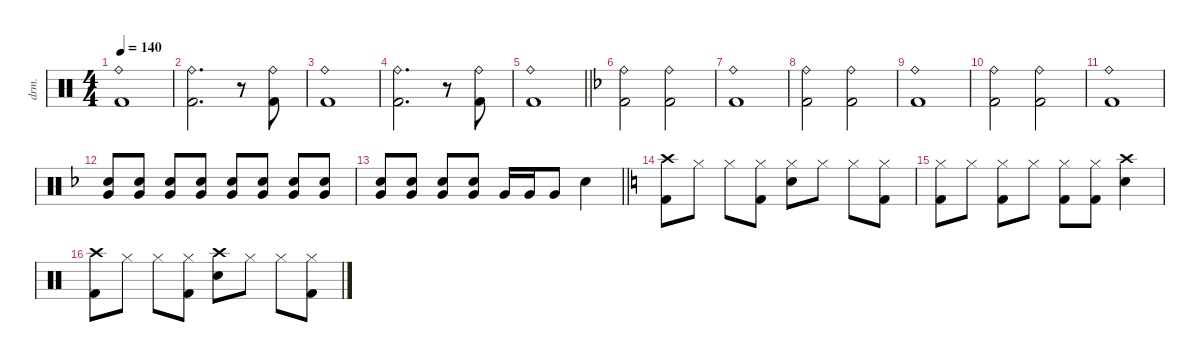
\defaultSystemsLayout 4
\hideDynamics
\bracketExtendMode nobrackets
\otherSystemsTrackNameOrientation horizontal
\track ("Drums" "drm.") {defaultSystemsLayout 4 instrument percussion}
\staff {score}
\articulation defaults
\ts (4 4)
\tempo 140
\clef neutral
\ks aminor
("Ride (bell)" "Kick (hit) 2").1{dy p beam Down} |
("Ride (bell)" "Kick (hit) 2").2{d beam Down} r.8{beam Down} ("Ride (bell)" "Kick (hit) 2").8{beam Down} |
("Ride (bell)" "Kick (hit) 2").1{beam Down} |
("Ride (bell)" "Kick (hit) 2").2{d beam Down} r.8{beam Down} ("Ride (bell)" "Kick (hit) 2").8{beam Down} |
\barLineRight lightlight
("Ride (bell)" "Kick (hit) 2").1{beam Down} |
\ks dminor
("Ride (bell)"{acc forcenatural} "Kick (hit) 2"{acc forcenatural}).2{beam Down} ("Ride (bell)"{acc forcenatural} "Kick (hit) 2"{acc forcenatural}).2{beam Down} |
("Ride (bell)"{acc forcenatural} "Kick (hit) 2"{acc forcenatural}).1{beam Down} |
("Ride (bell)"{acc forcenatural} "Kick (hit) 2"{acc forcenatural}).2{beam Down} ("Ride (bell)"{acc forcenatural} "Kick (hit) 2"{acc forcenatural}).2{beam Down} |
("Ride (bell)"{acc forcenatural} "Kick (hit) 2"{acc forcenatural}).1{beam Down} |
("Ride (bell)"{acc forcenatural} "Kick (hit) 2"{acc forcenatural}).2{beam Down} ("Ride (bell)"{acc forcenatural} "Kick (hit) 2"{acc forcenatural}).2{beam Down} |
("Ride (bell)"{acc forcenatural} "Kick (hit) 2"{acc forcenatural}).1{beam Down} |
("Very Low Tom (hit)"{acc forcenatural} "Snare (hit) 2"{acc forcenatural}).8{dy ppp beam Up} ("Very Low Tom (hit)"{acc forcenatural} "Snare (hit) 2"{acc forcenatural}).8{beam Up} ("Very Low Tom (hit)"{acc forcenatural} "Snare (hit) 2"{acc forcenatural}).8{beam Up} ("Very Low Tom (hit)"{acc forcenatural} "Snare (hit) 2"{acc forcenatural}).8{beam Up} ("Very Low Tom (hit)"{acc forcenatural} "Snare (hit) 2"{acc forcenatural}).8{dy pp beam Up} ("Very Low Tom (hit)"{acc forcenatural} "Snare (hit) 2"{acc forcenatural}).8{beam Up} ("Very Low Tom (hit)"{acc forcenatural} "Snare (hit) 2"{acc forcenatural}).8{beam Up} ("Very Low Tom (hit)"{acc forcenatural} "Snare (hit) 2"{acc forcenatural}).8{dy p beam Up} |
\barLineRight lightlight
("Very Low Tom (hit)"{acc forcenatural} "Snare (hit) 2"{acc forcenatural}).8{beam Up} ("Very Low Tom (hit)"{acc forcenatural} "Snare (hit) 2"{acc forcenatural}).8{beam Up} ("Very Low Tom (hit)"{acc forcenatural} "Snare (hit) 2"{acc forcenatural}).8{dy mp beam Up} ("Very Low Tom (hit)"{acc forcenatural} "Snare (hit) 2"{acc forcenatural}).8{beam Up} "Very Low Tom (hit)"{acc forcenatural}.16{dy mf beam Up} "Very Low Tom (hit)"{acc forcenatural}.16{beam Up} "Very Low Tom (hit)"{acc forcenatural}.8{dy f beam Up} "Snare (hit) 2"{acc forcenatural}.4{dy ff beam Down} |
\ks aminor
("Crash high (hit)" "Kick (hit) 2").8{dy f beam Down} "Hi-Hat (closed)".8{beam Down} "Hi-Hat (closed)".8{beam Down} ("Hi-Hat (closed)" "Kick (hit) 2").8{beam Down} ("Hi-Hat (closed)" "Snare (hit) 2").8{beam Down} "Hi-Hat (closed)".8{beam Down} "Hi-Hat (closed)".8{beam Down} ("Hi-Hat (closed)" "Kick (hit) 2").8{beam Down} |
("Hi-Hat (closed)" "Kick (hit) 2").8{beam Down} "Hi-Hat (closed)".8{beam Down} ("Hi-Hat (closed)" "Kick (hit) 2").8{beam Down} "Hi-Hat (closed)".8{beam Down} ("Hi-Hat (closed)" "Kick (hit) 2").8{beam Down} ("Hi-Hat (closed)" "Kick (hit) 2").8{beam Down} ("Crash high (hit)" "Snare (hit) 2").4{beam Down} |
("Crash high (hit)" "Kick (hit) 2").8{beam Down} "Hi-Hat (closed)".8{beam Down} "Hi-Hat (closed)".8{beam Down} ("Hi-Hat (closed)" "Kick (hit) 2").8{beam Down} ("Crash high (hit)" "Snare (hit) 2").8{beam Down} "Hi-Hat (closed)".8{beam Down} "Hi-Hat (closed)".8{beam Down} ("Hi-Hat (closed)" "Kick (hit) 2").8{beam Down}
